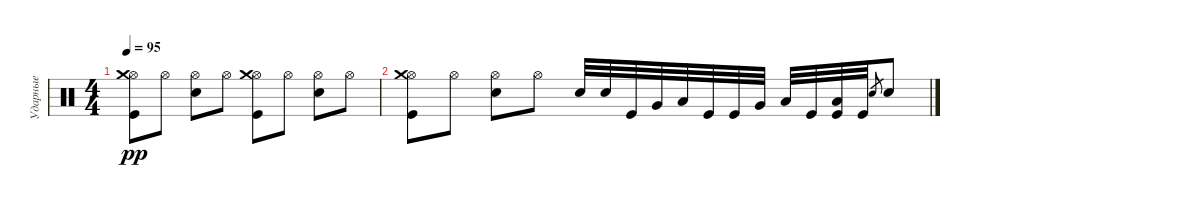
\track ("Ударные" "Ударные") {instrument percussion}
\staff {score}
\articulation defaults
\ts (4 4)
\tempo 95
\clef neutral
\ks c
("Hi-Hat (open)" "Crash medium (hit)" "Kick (hit)").8{dy pp} "Hi-Hat (open)".8 ("Hi-Hat (open)" "Snare (hit) 2").8 "Hi-Hat (open)".8 ("Hi-Hat (open)" "Crash medium (hit)" "Kick (hit)").8 "Hi-Hat (open)".8 ("Hi-Hat (open)" "Snare (hit) 2").8 "Hi-Hat (open)".8 |
("Hi-Hat (open)" "Crash medium (hit)" "Kick (hit)").8 "Hi-Hat (open)".8 ("Hi-Hat (open)" "Snare (hit) 2").8 "Hi-Hat (open)".8 "Snare (hit) 2".32 "Snare (hit) 2".32 "Kick (hit)".32 "Very Low Tom (hit)".32 "Low Floor Tom (hit)".32 "Kick (hit)".32 "Kick (hit)".32 "Very Low Tom (hit)".32 "Low Floor Tom (hit)".32 "Kick (hit)".32 ("Low Floor Tom (hit)" "Kick (hit)").32 "Kick (hit)".32 "Snare (hit) 2".8{gr} "Snare (hit) 2".8
